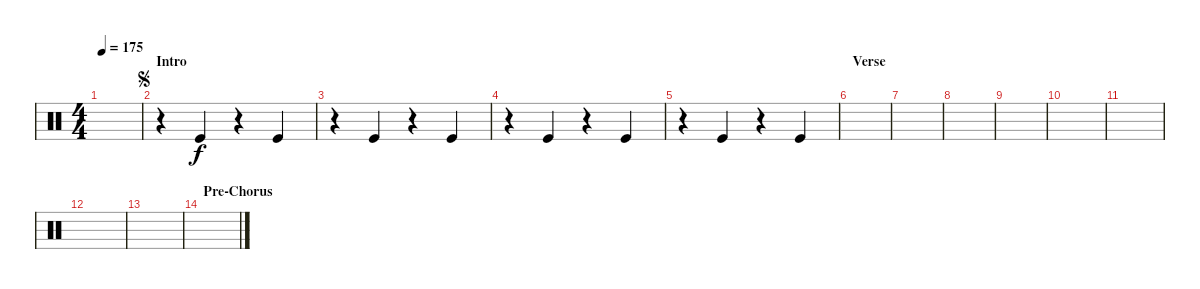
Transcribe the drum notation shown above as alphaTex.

\defaultSystemsLayout 4
\bracketExtendMode nobrackets
\singleTrackTrackNamePolicy hidden
\multiTrackTrackNamePolicy hidden
\firstSystemTrackNameOrientation horizontal
\otherSystemsTrackNameOrientation horizontal
\track ("Hand Clap" "H-Clap") {instrument percussion}
\staff {score}
\articulation defaults
\ts (4 4)
\ac
\tempo 175
\clef neutral
\ks c
|
\section ("" "Intro")
\jump segno
r.4 "Kick (hit)".4 r.4 "Kick (hit)".4 |
r.4 "Kick (hit)".4 r.4 "Kick (hit)".4 |
r.4 "Kick (hit)".4 r.4 "Kick (hit)".4 |
r.4 "Kick (hit)".4 r.4 "Kick (hit)".4 |
\section ("" "Verse")
|
|
|
|
|
|
|
|
\section ("" "Pre-Chorus")
